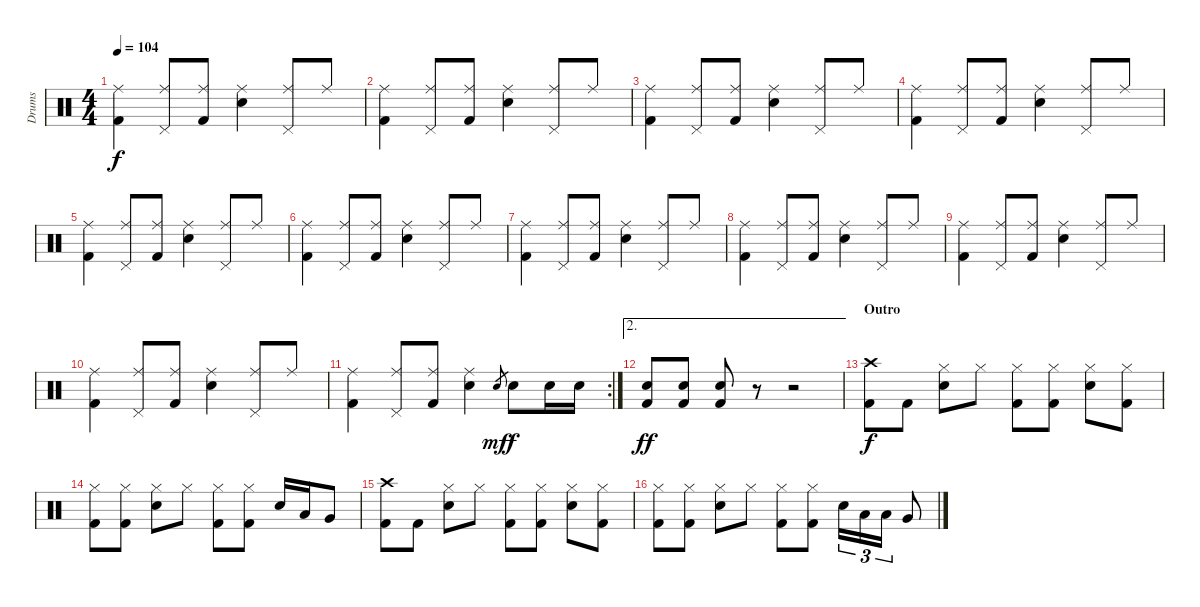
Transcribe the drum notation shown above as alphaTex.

\track ("Drums" "Drums") {instrument percussion}
\staff {score}
\articulation defaults
\ts (4 4)
\tempo 104
\clef neutral
\ks c
("Ride (middle)" "Kick (hit) 2").4{dy f} ("Ride (middle)" "Pedal Hi-Hat (hit)").8 ("Ride (middle)" "Kick (hit) 2").8 ("Ride (middle)" "Electric Snare (hit)").4 ("Ride (middle)" "Pedal Hi-Hat (hit)").8 "Ride (middle)".8 |
("Ride (middle)" "Kick (hit) 2").4 ("Ride (middle)" "Pedal Hi-Hat (hit)").8 ("Ride (middle)" "Kick (hit) 2").8 ("Ride (middle)" "Electric Snare (hit)").4 ("Ride (middle)" "Pedal Hi-Hat (hit)").8 "Ride (middle)".8 |
("Ride (middle)" "Kick (hit) 2").4 ("Ride (middle)" "Pedal Hi-Hat (hit)").8 ("Ride (middle)" "Kick (hit) 2").8 ("Ride (middle)" "Electric Snare (hit)").4 ("Ride (middle)" "Pedal Hi-Hat (hit)").8 "Ride (middle)".8 |
("Ride (middle)" "Kick (hit) 2").4 ("Ride (middle)" "Pedal Hi-Hat (hit)").8 ("Ride (middle)" "Kick (hit) 2").8 ("Ride (middle)" "Electric Snare (hit)").4 ("Ride (middle)" "Pedal Hi-Hat (hit)").8 "Ride (middle)".8 |
("Ride (middle)" "Kick (hit) 2").4 ("Ride (middle)" "Pedal Hi-Hat (hit)").8 ("Ride (middle)" "Kick (hit) 2").8 ("Ride (middle)" "Electric Snare (hit)").4 ("Ride (middle)" "Pedal Hi-Hat (hit)").8 "Ride (middle)".8 |
("Ride (middle)" "Kick (hit) 2").4 ("Ride (middle)" "Pedal Hi-Hat (hit)").8 ("Ride (middle)" "Kick (hit) 2").8 ("Ride (middle)" "Electric Snare (hit)").4 ("Ride (middle)" "Pedal Hi-Hat (hit)").8 "Ride (middle)".8 |
("Ride (middle)" "Kick (hit) 2").4 ("Ride (middle)" "Pedal Hi-Hat (hit)").8 ("Ride (middle)" "Kick (hit) 2").8 ("Ride (middle)" "Electric Snare (hit)").4 ("Ride (middle)" "Pedal Hi-Hat (hit)").8 "Ride (middle)".8 |
("Ride (middle)" "Kick (hit) 2").4 ("Ride (middle)" "Pedal Hi-Hat (hit)").8 ("Ride (middle)" "Kick (hit) 2").8 ("Ride (middle)" "Electric Snare (hit)").4 ("Ride (middle)" "Pedal Hi-Hat (hit)").8 "Ride (middle)".8 |
("Ride (middle)" "Kick (hit) 2").4 ("Ride (middle)" "Pedal Hi-Hat (hit)").8 ("Ride (middle)" "Kick (hit) 2").8 ("Ride (middle)" "Electric Snare (hit)").4 ("Ride (middle)" "Pedal Hi-Hat (hit)").8 "Ride (middle)".8 |
("Ride (middle)" "Kick (hit) 2").4 ("Ride (middle)" "Pedal Hi-Hat (hit)").8 ("Ride (middle)" "Kick (hit) 2").8 ("Ride (middle)" "Electric Snare (hit)").4 ("Ride (middle)" "Pedal Hi-Hat (hit)").8 "Ride (middle)".8 |
\rc 2
("Ride (middle)" "Kick (hit) 2").4 ("Ride (middle)" "Pedal Hi-Hat (hit)").8 ("Ride (middle)" "Kick (hit) 2").8 ("Ride (middle)" "Electric Snare (hit)").4 "Electric Snare (hit)".8{gr dy mf} "Electric Snare (hit)".8{dy f} "Electric Snare (hit)".16 "Electric Snare (hit)".16 |
\ae 2
("Electric Snare (hit)" "Kick (hit) 2").8{dy ff} ("Electric Snare (hit)" "Kick (hit) 2").8 ("Electric Snare (hit)" "Kick (hit) 2").8 r.8 r.2 |
\section ("" "Outro")
("Crash high (hit)" "Kick (hit) 2").8{dy f} "Kick (hit) 2".8 ("Hi-Hat (closed)" "Electric Snare (hit)").8 "Hi-Hat (closed)".8 ("Hi-Hat (closed)" "Kick (hit) 2").8 ("Hi-Hat (closed)" "Kick (hit) 2").8 ("Hi-Hat (closed)" "Electric Snare (hit)").8 ("Hi-Hat (closed)" "Kick (hit) 2").8 |
("Hi-Hat (closed)" "Kick (hit) 2").8 ("Hi-Hat (closed)" "Kick (hit) 2").8 ("Hi-Hat (closed)" "Electric Snare (hit)").8 "Hi-Hat (closed)".8 ("Hi-Hat (closed)" "Kick (hit) 2").8 ("Hi-Hat (closed)" "Kick (hit) 2").8 "Electric Snare (hit)".16 "Low Tom (hit)".16 "Very Low Tom (hit)".8 |
("Crash high (hit)" "Kick (hit) 2").8 "Kick (hit) 2".8 ("Hi-Hat (closed)" "Electric Snare (hit)").8 "Hi-Hat (closed)".8 ("Hi-Hat (closed)" "Kick (hit) 2").8 ("Hi-Hat (closed)" "Kick (hit) 2").8 ("Hi-Hat (closed)" "Electric Snare (hit)").8 ("Hi-Hat (closed)" "Kick (hit) 2").8 |
("Hi-Hat (closed)" "Kick (hit) 2").8 ("Hi-Hat (closed)" "Kick (hit) 2").8 ("Hi-Hat (closed)" "Electric Snare (hit)").8 "Hi-Hat (closed)".8 ("Hi-Hat (closed)" "Kick (hit) 2").8 ("Hi-Hat (closed)" "Kick (hit) 2").8 "Electric Snare (hit)".16{tu (3 2)} "Low Tom (hit)".16{tu (3 2)} "Low Tom (hit)".16{tu (3 2)} "Very Low Tom (hit)".8
